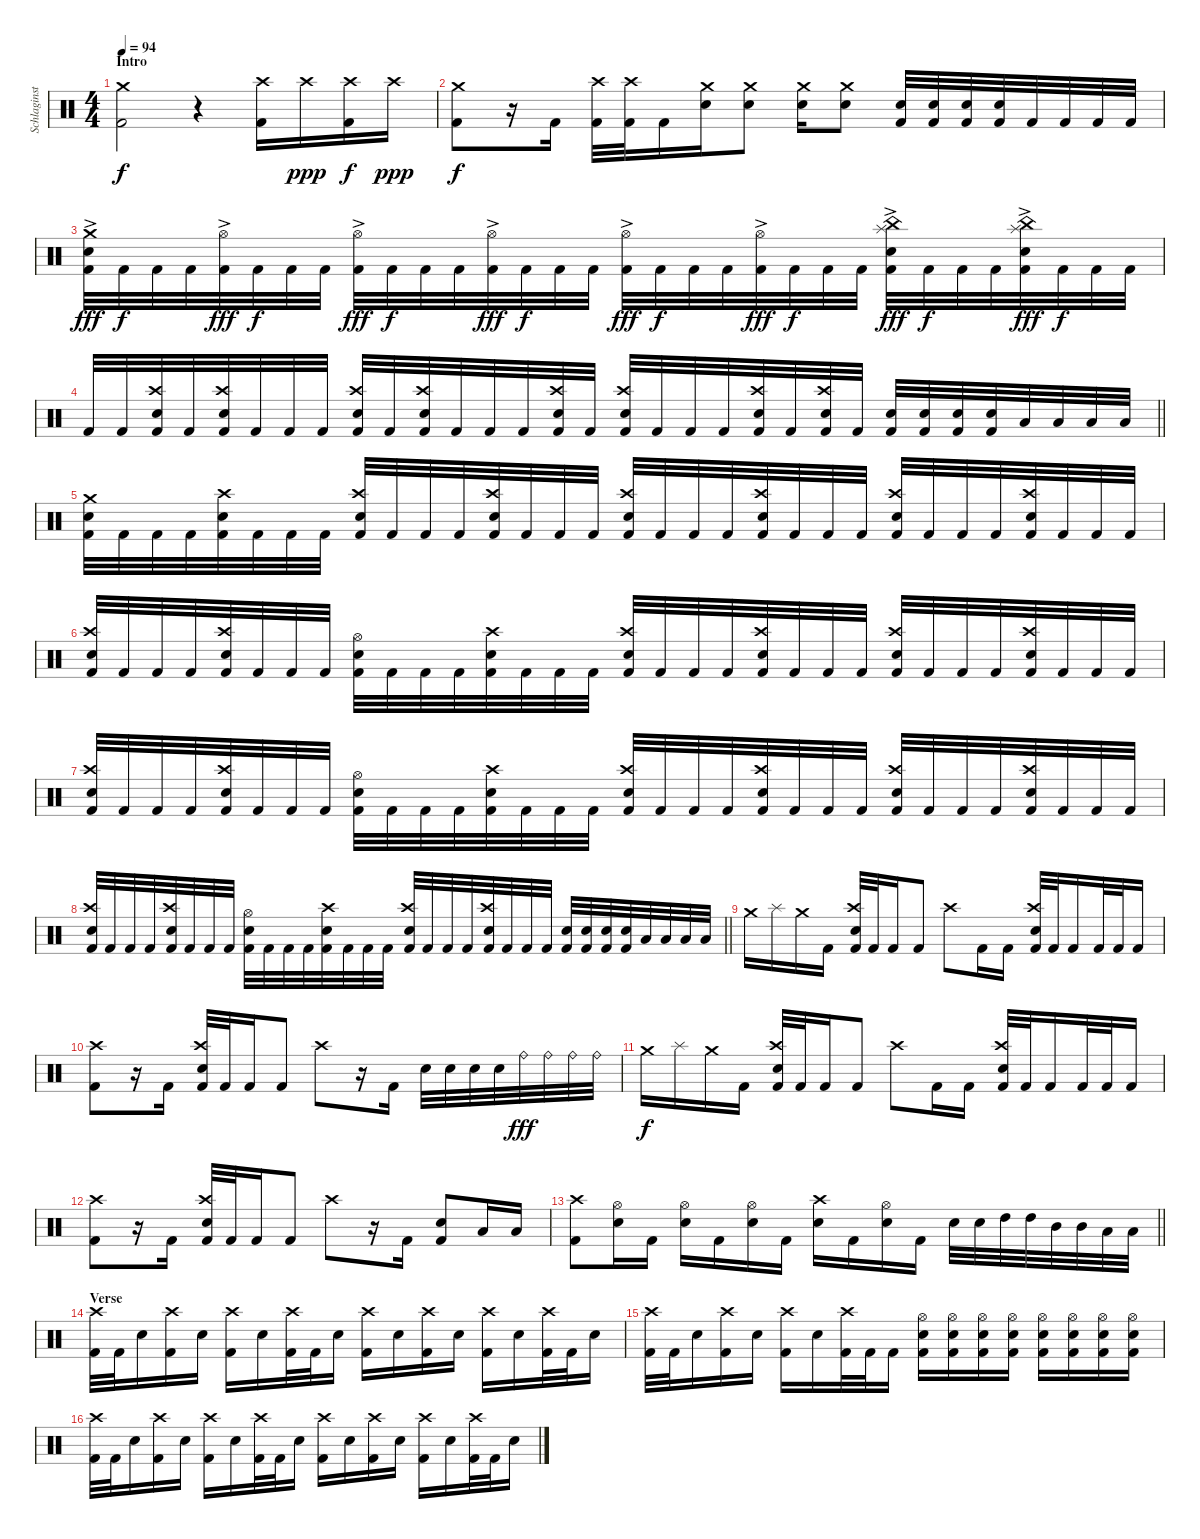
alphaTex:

\track ("Schlaginstrumente - Auswahl" "Schlaginst") {instrument percussion}
\staff {score}
\articulation defaults
\ts (4 4)
\section ("" "Intro")
\tempo 94
\clef neutral
\ks c
("Crash medium (hit)" "Kick (hit) 2").2{dy f} r.4 ("Crash high (hit)" "Kick (hit) 2").16 "Crash high (hit)".16{dy ppp} ("Crash high (hit)" "Kick (hit) 2").16{dy f} "Crash high (hit)".16{dy ppp} |
("Crash medium (hit)" "Kick (hit) 2").8{dy f} r.16 "Kick (hit) 2".16 ("Crash high (hit)" "Kick (hit) 2").32 ("Crash high (hit)" "Kick (hit) 2").32 "Kick (hit) 2".16 ("Crash medium (hit)" "Snare (hit) 2").16 ("Crash medium (hit)" "Snare (hit) 2").8 ("Crash medium (hit)" "Snare (hit) 2").16 ("Crash medium (hit)" "Snare (hit) 2").8 ("Snare (hit) 2" "Kick (hit) 2").32 ("Snare (hit) 2" "Kick (hit) 2").32 ("Snare (hit) 2" "Kick (hit) 2").32 ("Snare (hit) 2" "Kick (hit) 2").32 "Kick (hit) 2".32 "Kick (hit) 2".32 "Kick (hit) 2".32 "Kick (hit) 2".32 |
("Crash medium (hit)" "Snare (hit) 2" "Kick (hit) 2"{ac}).32{dy fff} "Kick (hit) 2".32{dy f} "Kick (hit) 2".32 "Kick (hit) 2".32 ("Hi-Hat (open)" "Kick (hit) 2"{ac}).32{dy fff} "Kick (hit) 2".32{dy f} "Kick (hit) 2".32 "Kick (hit) 2".32 ("Hi-Hat (open)" "Kick (hit) 2"{ac}).32{dy fff} "Kick (hit) 2".32{dy f} "Kick (hit) 2".32 "Kick (hit) 2".32 ("Hi-Hat (open)" "Kick (hit) 2"{ac}).32{dy fff} "Kick (hit) 2".32{dy f} "Kick (hit) 2".32 "Kick (hit) 2".32 ("Hi-Hat (open)" "Kick (hit) 2"{ac}).32{dy fff} "Kick (hit) 2".32{dy f} "Kick (hit) 2".32 "Kick (hit) 2".32 ("Hi-Hat (open)" "Kick (hit) 2"{ac}).32{dy fff} "Kick (hit) 2".32{dy f} "Kick (hit) 2".32 "Kick (hit) 2".32 ("China (hit)" "Splash (hit)" "Snare (hit) 2" "Kick (hit) 2"{ac}).32{dy fff} "Kick (hit) 2".32{dy f} "Kick (hit) 2".32 "Kick (hit) 2".32 ("China (hit)" "Splash (hit)" "Snare (hit) 2" "Kick (hit) 2"{ac}).32{dy fff} "Kick (hit) 2".32{dy f} "Kick (hit) 2".32 "Kick (hit) 2".32 |
\barLineRight lightlight "Kick (hit) 2".32 "Kick (hit) 2".32
("Crash high (hit)" "Snare (hit) 2" "Kick (hit) 2").32 "Kick (hit) 2".32 ("Crash high (hit)" "Snare (hit) 2" "Kick (hit) 2").32 "Kick (hit) 2".32 "Kick (hit) 2".32 "Kick (hit) 2".32 ("Crash high (hit)" "Snare (hit) 2" "Kick (hit) 2").32 "Kick (hit) 2".32 ("Crash high (hit)" "Snare (hit) 2" "Kick (hit) 2").32 "Kick (hit) 2".32 "Kick (hit) 2".32 "Kick (hit) 2".32 ("Crash high (hit)" "Snare (hit) 2" "Kick (hit) 2").32 "Kick (hit) 2".32 ("Crash high (hit)" "Snare (hit) 2" "Kick (hit) 2").32 "Kick (hit) 2".32 "Kick (hit) 2".32 "Kick (hit) 2".32 ("Crash high (hit)" "Snare (hit) 2" "Kick (hit) 2").32 "Kick (hit) 2".32 ("Crash high (hit)" "Snare (hit) 2" "Kick (hit) 2").32 "Kick (hit) 2".32 ("Snare (hit) 2" "Kick (hit) 2").32 ("Snare (hit) 2" "Kick (hit) 2").32 ("Snare (hit) 2" "Kick (hit) 2").32 ("Snare (hit) 2" "Kick (hit) 2").32 "Low Tom (hit)".32 "Low Tom (hit)".32 "Low Tom (hit)".32 "Low Tom (hit)".32 |
("Crash medium (hit)" "Snare (hit) 2" "Kick (hit) 2").32 "Kick (hit) 2".32 "Kick (hit) 2".32 "Kick (hit) 2".32 ("Crash high (hit)" "Snare (hit) 2" "Kick (hit) 2").32 "Kick (hit) 2".32 "Kick (hit) 2".32 "Kick (hit) 2".32 ("Crash high (hit)" "Snare (hit) 2" "Kick (hit) 2").32 "Kick (hit) 2".32 "Kick (hit) 2".32 "Kick (hit) 2".32 ("Crash high (hit)" "Snare (hit) 2" "Kick (hit) 2").32 "Kick (hit) 2".32 "Kick (hit) 2".32 "Kick (hit) 2".32 ("Crash high (hit)" "Snare (hit) 2" "Kick (hit) 2").32 "Kick (hit) 2".32 "Kick (hit) 2".32 "Kick (hit) 2".32 ("Crash high (hit)" "Snare (hit) 2" "Kick (hit) 2").32 "Kick (hit) 2".32 "Kick (hit) 2".32 "Kick (hit) 2".32 ("Crash high (hit)" "Snare (hit) 2" "Kick (hit) 2").32 "Kick (hit) 2".32 "Kick (hit) 2".32 "Kick (hit) 2".32 ("Crash high (hit)" "Snare (hit) 2" "Kick (hit) 2").32 "Kick (hit) 2".32 "Kick (hit) 2".32 "Kick (hit) 2".32 |
("Crash high (hit)" "Snare (hit) 2" "Kick (hit) 2").32 "Kick (hit) 2".32 "Kick (hit) 2".32 "Kick (hit) 2".32 ("Crash high (hit)" "Snare (hit) 2" "Kick (hit) 2").32 "Kick (hit) 2".32 "Kick (hit) 2".32 "Kick (hit) 2".32 ("Hi-Hat (open)" "Snare (hit) 2" "Kick (hit) 2").32 "Kick (hit) 2".32 "Kick (hit) 2".32 "Kick (hit) 2".32 ("Crash high (hit)" "Snare (hit) 2" "Kick (hit) 2").32 "Kick (hit) 2".32 "Kick (hit) 2".32 "Kick (hit) 2".32 ("Crash high (hit)" "Snare (hit) 2" "Kick (hit) 2").32 "Kick (hit) 2".32 "Kick (hit) 2".32 "Kick (hit) 2".32 ("Crash high (hit)" "Snare (hit) 2" "Kick (hit) 2").32 "Kick (hit) 2".32 "Kick (hit) 2".32 "Kick (hit) 2".32 ("Crash high (hit)" "Snare (hit) 2" "Kick (hit) 2").32 "Kick (hit) 2".32 "Kick (hit) 2".32 "Kick (hit) 2".32 ("Crash high (hit)" "Snare (hit) 2" "Kick (hit) 2").32 "Kick (hit) 2".32 "Kick (hit) 2".32 "Kick (hit) 2".32 |
("Crash high (hit)" "Snare (hit) 2" "Kick (hit) 2").32 "Kick (hit) 2".32 "Kick (hit) 2".32 "Kick (hit) 2".32 ("Crash high (hit)" "Snare (hit) 2" "Kick (hit) 2").32 "Kick (hit) 2".32 "Kick (hit) 2".32 "Kick (hit) 2".32 ("Hi-Hat (open)" "Snare (hit) 2" "Kick (hit) 2").32 "Kick (hit) 2".32 "Kick (hit) 2".32 "Kick (hit) 2".32 ("Crash high (hit)" "Snare (hit) 2" "Kick (hit) 2").32 "Kick (hit) 2".32 "Kick (hit) 2".32 "Kick (hit) 2".32 ("Crash high (hit)" "Snare (hit) 2" "Kick (hit) 2").32 "Kick (hit) 2".32 "Kick (hit) 2".32 "Kick (hit) 2".32 ("Crash high (hit)" "Snare (hit) 2" "Kick (hit) 2").32 "Kick (hit) 2".32 "Kick (hit) 2".32 "Kick (hit) 2".32 ("Crash high (hit)" "Snare (hit) 2" "Kick (hit) 2").32 "Kick (hit) 2".32 "Kick (hit) 2".32 "Kick (hit) 2".32 ("Crash high (hit)" "Snare (hit) 2" "Kick (hit) 2").32 "Kick (hit) 2".32 "Kick (hit) 2".32 "Kick (hit) 2".32 |
\barLineRight lightlight
("Crash high (hit)" "Snare (hit) 2" "Kick (hit) 2").32 "Kick (hit) 2".32 "Kick (hit) 2".32 "Kick (hit) 2".32 ("Crash high (hit)" "Snare (hit) 2" "Kick (hit) 2").32 "Kick (hit) 2".32 "Kick (hit) 2".32 "Kick (hit) 2".32 ("Hi-Hat (open)" "Snare (hit) 2" "Kick (hit) 2").32 "Kick (hit) 2".32 "Kick (hit) 2".32 "Kick (hit) 2".32 ("Crash high (hit)" "Snare (hit) 2" "Kick (hit) 2").32 "Kick (hit) 2".32 "Kick (hit) 2".32 "Kick (hit) 2".32 ("Crash high (hit)" "Snare (hit) 2" "Kick (hit) 2").32 "Kick (hit) 2".32 "Kick (hit) 2".32 "Kick (hit) 2".32 ("Crash high (hit)" "Snare (hit) 2" "Kick (hit) 2").32 "Kick (hit) 2".32 "Kick (hit) 2".32 "Kick (hit) 2".32 ("Snare (hit) 2" "Kick (hit) 2").32 ("Snare (hit) 2" "Kick (hit) 2").32 ("Snare (hit) 2" "Kick (hit) 2").32 ("Snare (hit) 2" "Kick (hit) 2").32 "Low Tom (hit)".32 "Low Tom (hit)".32 "Low Tom (hit)".32 "Low Tom (hit)".32 |
"Crash medium (hit)".16 "Splash (hit)".16 "Crash medium (hit)".16 "Kick (hit) 2".16 ("Crash high (hit)" "Snare (hit) 2" "Kick (hit) 2").32 "Kick (hit) 2".32 "Kick (hit) 2".16 "Kick (hit) 2".8 "Crash high (hit)".8 "Kick (hit) 2".16 "Kick (hit) 2".16 ("Crash high (hit)" "Snare (hit) 2" "Kick (hit) 2").32 "Kick (hit) 2".32 "Kick (hit) 2".16 "Kick (hit) 2".32 "Kick (hit) 2".32 "Kick (hit) 2".16 |
("Crash high (hit)" "Kick (hit) 2").8 r.16 "Kick (hit) 2".16 ("Crash high (hit)" "Snare (hit) 2" "Kick (hit) 2").32 "Kick (hit) 2".32 "Kick (hit) 2".16 "Kick (hit) 2".8 "Crash high (hit)".8 r.16 "Kick (hit) 2".16 "Snare (hit) 2".32 "Snare (hit) 2".32 "Snare (hit) 2".32 "Snare (hit) 2".32 "Ride (bell)".32{dy fff} "Ride (bell)".32 "Ride (bell)".32 "Ride (bell)".32 |
"Crash medium (hit)".16{dy f} "Splash (hit)".16 "Crash medium (hit)".16 "Kick (hit) 2".16 ("Crash high (hit)" "Snare (hit) 2" "Kick (hit) 2").32 "Kick (hit) 2".32 "Kick (hit) 2".16 "Kick (hit) 2".8 "Crash high (hit)".8 "Kick (hit) 2".16 "Kick (hit) 2".16 ("Crash high (hit)" "Snare (hit) 2" "Kick (hit) 2").32 "Kick (hit) 2".32 "Kick (hit) 2".16 "Kick (hit) 2".32 "Kick (hit) 2".32 "Kick (hit) 2".16 |
("Crash high (hit)" "Kick (hit) 2").8 r.16 "Kick (hit) 2".16 ("Crash high (hit)" "Snare (hit) 2" "Kick (hit) 2").32 "Kick (hit) 2".32 "Kick (hit) 2".16 "Kick (hit) 2".8 "Crash high (hit)".8 r.16 "Kick (hit) 2".16 ("Snare (hit) 2" "Kick (hit) 2").8 "Low Tom (hit)".16 "Low Tom (hit)".16 |
\barLineRight lightlight
("Crash high (hit)" "Kick (hit) 2").8 ("Hi-Hat (open)" "Snare (hit) 2").16 "Kick (hit) 2".16 ("Hi-Hat (open)" "Snare (hit) 2").16 "Kick (hit) 2".16 ("Hi-Hat (open)" "Snare (hit) 2").16 "Kick (hit) 2".16 ("Crash high (hit)" "Snare (hit) 2").16 "Kick (hit) 2".16 ("Hi-Hat (open)" "Snare (hit) 2").16 "Kick (hit) 2".16 "Snare (hit) 2".32 "Snare (hit) 2".32 "High Tom (hit)".32 "High Tom (hit)".32 "Mid Tom (hit)".32 "Mid Tom (hit)".32 "Low Tom (hit)".32 "Low Tom (hit)".32 |
\section ("" "Verse")
("Crash high (hit)" "Kick (hit) 2").32 "Kick (hit) 2".32 "Snare (hit) 2".16 ("Crash high (hit)" "Kick (hit) 2").16 "Snare (hit) 2".16 ("Crash high (hit)" "Kick (hit) 2").16 "Snare (hit) 2".16 ("Crash high (hit)" "Kick (hit) 2").32 "Kick (hit) 2".32 "Snare (hit) 2".16 ("Crash high (hit)" "Kick (hit) 2").16 "Snare (hit) 2".16 ("Crash high (hit)" "Kick (hit) 2").16 "Snare (hit) 2".16 ("Crash high (hit)" "Kick (hit) 2").16 "Snare (hit) 2".16 ("Crash high (hit)" "Kick (hit) 2").32 "Kick (hit) 2".32 "Snare (hit) 2".16 |
("Crash high (hit)" "Kick (hit) 2").32 "Kick (hit) 2".32 "Snare (hit) 2".16 ("Crash high (hit)" "Kick (hit) 2").16 "Snare (hit) 2".16 ("Crash high (hit)" "Kick (hit) 2").16 "Snare (hit) 2".16 ("Crash high (hit)" "Kick (hit) 2").32 "Kick (hit) 2".32 "Kick (hit) 2".16 ("Hi-Hat (open)" "Snare (hit) 2" "Kick (hit) 2").16 ("Hi-Hat (open)" "Snare (hit) 2" "Kick (hit) 2").16 ("Hi-Hat (open)" "Snare (hit) 2" "Kick (hit) 2").16 ("Hi-Hat (open)" "Snare (hit) 2" "Kick (hit) 2").16 ("Hi-Hat (open)" "Snare (hit) 2" "Kick (hit) 2").16 ("Hi-Hat (open)" "Snare (hit) 2" "Kick (hit) 2").16 ("Hi-Hat (open)" "Snare (hit) 2" "Kick (hit) 2").16 ("Hi-Hat (open)" "Snare (hit) 2" "Kick (hit) 2").16 |
("Crash high (hit)" "Kick (hit) 2").32 "Kick (hit) 2".32 "Snare (hit) 2".16 ("Crash high (hit)" "Kick (hit) 2").16 "Snare (hit) 2".16 ("Crash high (hit)" "Kick (hit) 2").16 "Snare (hit) 2".16 ("Crash high (hit)" "Kick (hit) 2").32 "Kick (hit) 2".32 "Snare (hit) 2".16 ("Crash high (hit)" "Kick (hit) 2").16 "Snare (hit) 2".16 ("Crash high (hit)" "Kick (hit) 2").16 "Snare (hit) 2".16 ("Crash high (hit)" "Kick (hit) 2").16 "Snare (hit) 2".16 ("Crash high (hit)" "Kick (hit) 2").32 "Kick (hit) 2".32 "Snare (hit) 2".16
